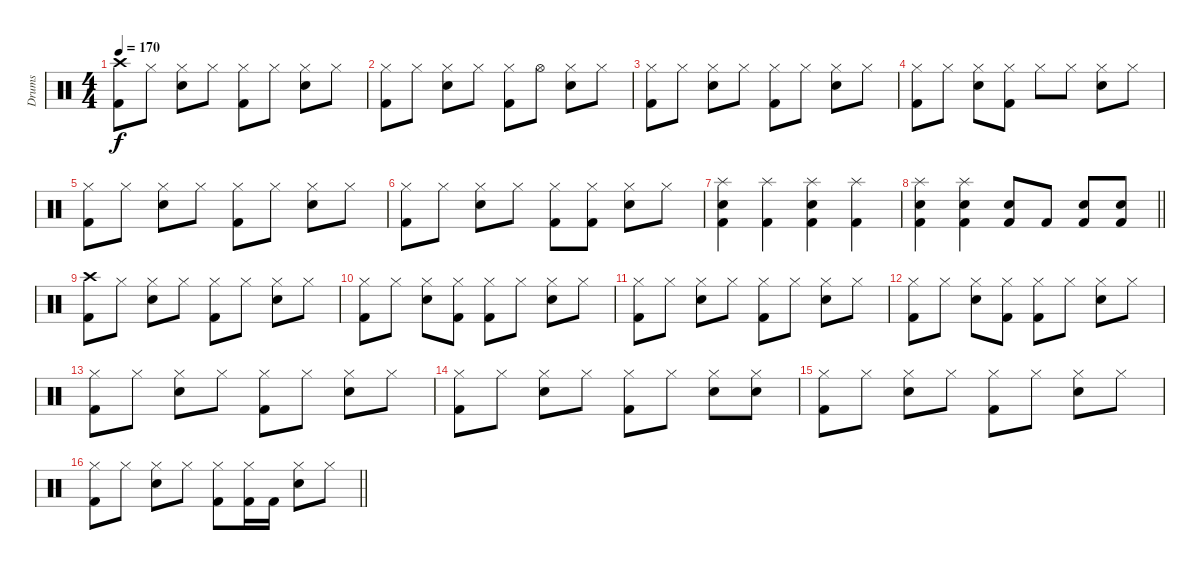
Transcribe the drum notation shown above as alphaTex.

\track ("Drums" "Drums") {instrument percussion}
\staff {score}
\articulation defaults
\ts (4 4)
\tempo 170
\clef neutral
\ks c
("Crash high (hit)" "Kick (hit) 2").8{dy f} "Hi-Hat (closed)".8 ("Hi-Hat (closed)" "Snare (hit) 2").8 "Hi-Hat (closed)".8 ("Hi-Hat (closed)" "Kick (hit) 2").8 "Hi-Hat (closed)".8 ("Hi-Hat (closed)" "Snare (hit) 2").8 "Hi-Hat (closed)".8 |
("Hi-Hat (closed)" "Kick (hit) 2").8 "Hi-Hat (closed)".8 ("Hi-Hat (closed)" "Snare (hit) 2").8 "Hi-Hat (closed)".8 ("Hi-Hat (closed)" "Kick (hit) 2").8 "Hi-Hat (open)".8 ("Hi-Hat (closed)" "Snare (hit) 2").8 "Hi-Hat (closed)".8 |
("Hi-Hat (closed)" "Kick (hit) 2").8 "Hi-Hat (closed)".8 ("Hi-Hat (closed)" "Snare (hit) 2").8 "Hi-Hat (closed)".8 ("Hi-Hat (closed)" "Kick (hit) 2").8 "Hi-Hat (closed)".8 ("Hi-Hat (closed)" "Snare (hit) 2").8 "Hi-Hat (closed)".8 |
("Hi-Hat (closed)" "Kick (hit) 2").8 "Hi-Hat (closed)".8 ("Hi-Hat (closed)" "Snare (hit) 2").8 ("Hi-Hat (closed)" "Kick (hit) 2").8 "Hi-Hat (closed)".8 "Hi-Hat (closed)".8 ("Hi-Hat (closed)" "Snare (hit) 2").8 "Hi-Hat (closed)".8 |
("Hi-Hat (closed)" "Kick (hit) 2").8 "Hi-Hat (closed)".8 ("Hi-Hat (closed)" "Snare (hit) 2").8 "Hi-Hat (closed)".8 ("Hi-Hat (closed)" "Kick (hit) 2").8 "Hi-Hat (closed)".8 ("Hi-Hat (closed)" "Snare (hit) 2").8 "Hi-Hat (closed)".8 |
("Hi-Hat (closed)" "Kick (hit) 2").8 "Hi-Hat (closed)".8 ("Hi-Hat (closed)" "Snare (hit) 2").8 "Hi-Hat (closed)".8 ("Hi-Hat (closed)" "Kick (hit) 2").8 ("Hi-Hat (closed)" "Kick (hit) 2").8 ("Hi-Hat (closed)" "Snare (hit) 2").8 "Hi-Hat (closed)".8 |
("Splash (hit)" "Snare (hit) 2" "Kick (hit) 2").4 ("Splash (hit)" "Kick (hit) 2").4 ("Splash (hit)" "Snare (hit) 2" "Kick (hit) 2").4 ("Splash (hit)" "Kick (hit) 2").4 |
\barLineRight lightlight
("Splash (hit)" "Snare (hit) 2" "Kick (hit) 2").4 ("Splash (hit)" "Snare (hit) 2" "Kick (hit) 2").4 ("Snare (hit) 2" "Kick (hit) 2").8 "Kick (hit) 2".8 ("Snare (hit) 2" "Kick (hit) 2").8 ("Snare (hit) 2" "Kick (hit) 2").8 |
("Crash high (hit)" "Kick (hit) 2").8 "Hi-Hat (closed)".8 ("Hi-Hat (closed)" "Snare (hit) 2").8 "Hi-Hat (closed)".8 ("Hi-Hat (closed)" "Kick (hit) 2").8 "Hi-Hat (closed)".8 ("Hi-Hat (closed)" "Snare (hit) 2").8 "Hi-Hat (closed)".8 |
("Hi-Hat (closed)" "Kick (hit) 2").8 "Hi-Hat (closed)".8 ("Hi-Hat (closed)" "Snare (hit) 2").8 ("Hi-Hat (closed)" "Kick (hit) 2").8 ("Hi-Hat (closed)" "Kick (hit) 2").8 "Hi-Hat (closed)".8 ("Hi-Hat (closed)" "Snare (hit) 2").8 "Hi-Hat (closed)".8 |
("Hi-Hat (closed)" "Kick (hit) 2").8 "Hi-Hat (closed)".8 ("Hi-Hat (closed)" "Snare (hit) 2").8 "Hi-Hat (closed)".8 ("Hi-Hat (closed)" "Kick (hit) 2").8 "Hi-Hat (closed)".8 ("Hi-Hat (closed)" "Snare (hit) 2").8 "Hi-Hat (closed)".8 |
("Hi-Hat (closed)" "Kick (hit) 2").8 "Hi-Hat (closed)".8 ("Hi-Hat (closed)" "Snare (hit) 2").8 ("Hi-Hat (closed)" "Kick (hit) 2").8 ("Hi-Hat (closed)" "Kick (hit) 2").8 "Hi-Hat (closed)".8 ("Hi-Hat (closed)" "Snare (hit) 2").8 "Hi-Hat (closed)".8 |
("Hi-Hat (closed)" "Kick (hit) 2").8 "Hi-Hat (closed)".8 ("Hi-Hat (closed)" "Snare (hit) 2").8 "Hi-Hat (closed)".8 ("Hi-Hat (closed)" "Kick (hit) 2").8 "Hi-Hat (closed)".8 ("Hi-Hat (closed)" "Snare (hit) 2").8 "Hi-Hat (closed)".8 |
("Hi-Hat (closed)" "Kick (hit) 2").8 "Hi-Hat (closed)".8 ("Hi-Hat (closed)" "Snare (hit) 2").8 "Hi-Hat (closed)".8 ("Hi-Hat (closed)" "Kick (hit) 2").8 "Hi-Hat (closed)".8 ("Hi-Hat (closed)" "Snare (hit) 2").8 ("Hi-Hat (closed)" "Snare (hit) 2").8 |
("Hi-Hat (closed)" "Kick (hit) 2").8 "Hi-Hat (closed)".8 ("Hi-Hat (closed)" "Snare (hit) 2").8 "Hi-Hat (closed)".8 ("Hi-Hat (closed)" "Kick (hit) 2").8 "Hi-Hat (closed)".8 ("Hi-Hat (closed)" "Snare (hit) 2").8 "Hi-Hat (closed)".8 |
\barLineRight lightlight
("Hi-Hat (closed)" "Kick (hit) 2").8 "Hi-Hat (closed)".8 ("Hi-Hat (closed)" "Snare (hit) 2").8 "Hi-Hat (closed)".8 ("Hi-Hat (closed)" "Kick (hit) 2").8 ("Hi-Hat (closed)" "Kick (hit) 2").16 "Kick (hit) 2".16 ("Hi-Hat (closed)" "Snare (hit) 2").8 "Hi-Hat (closed)".8
